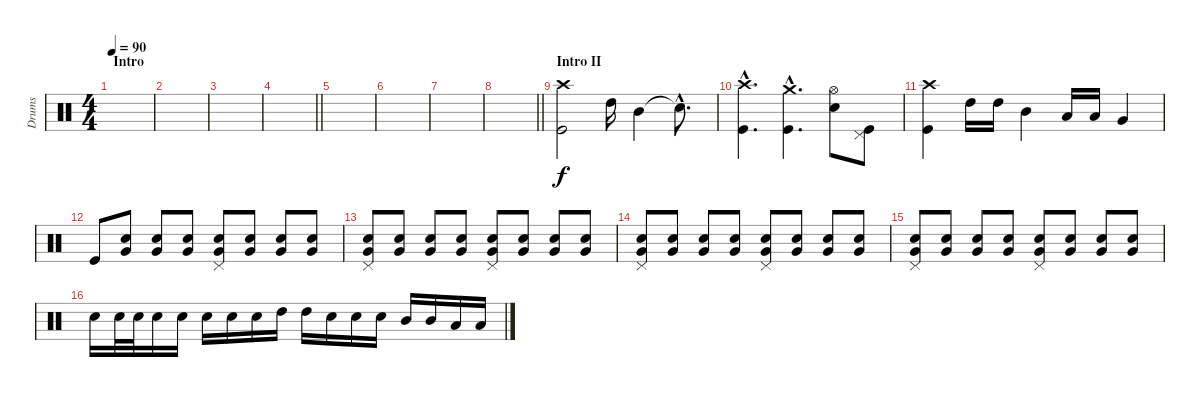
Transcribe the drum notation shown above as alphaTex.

\track ("Drums" "Drums") {instrument percussion}
\staff {score}
\articulation defaults
\ts (4 4)
\section ("" "Intro")
\tempo 90
\clef neutral
\ks c
|
|
|
\barLineRight lightlight
|
|
|
|
\barLineRight lightlight
|
\section ("" "Intro II")
("Crash high (hit)" "Kick (hit)").2 "High Tom (hit)".16 "Mid Tom (hit)".4 "Snare (hit)"{hac t}.8{d} |
("Crash high (hit)"{hac} "Kick (hit)"{hac}).4{d} ("Crash medium (hit)"{hac} "Kick (hit)"{hac}).4{d} ("Hi-Hat (open)" "Electric Snare (hit)").8 ("Pedal Hi-Hat (hit)" "Kick (hit)").8 |
("Crash high (hit)" "Kick (hit)").4 "High Tom (hit)".16 "High Tom (hit)".16 "Mid Tom (hit)".4 "Low Tom (hit)".16 "Low Tom (hit)".16 "Very Low Tom (hit)".4 |
"Kick (hit)".8 ("Very Low Tom (hit)" "Electric Snare (hit)").8 ("Very Low Tom (hit)" "Electric Snare (hit)").8 ("Very Low Tom (hit)" "Electric Snare (hit)").8 ("Very Low Tom (hit)" "Electric Snare (hit)" "Pedal Hi-Hat (hit)").8 ("Very Low Tom (hit)" "Electric Snare (hit)").8 ("Very Low Tom (hit)" "Electric Snare (hit)").8 ("Very Low Tom (hit)" "Electric Snare (hit)").8 |
("Very Low Tom (hit)" "Electric Snare (hit)" "Pedal Hi-Hat (hit)").8 ("Very Low Tom (hit)" "Electric Snare (hit)").8 ("Very Low Tom (hit)" "Electric Snare (hit)").8 ("Very Low Tom (hit)" "Electric Snare (hit)").8 ("Very Low Tom (hit)" "Electric Snare (hit)" "Pedal Hi-Hat (hit)").8 ("Very Low Tom (hit)" "Electric Snare (hit)").8 ("Very Low Tom (hit)" "Electric Snare (hit)").8 ("Very Low Tom (hit)" "Electric Snare (hit)").8 |
("Very Low Tom (hit)" "Electric Snare (hit)" "Pedal Hi-Hat (hit)").8 ("Very Low Tom (hit)" "Electric Snare (hit)").8 ("Very Low Tom (hit)" "Electric Snare (hit)").8 ("Very Low Tom (hit)" "Electric Snare (hit)").8 ("Very Low Tom (hit)" "Electric Snare (hit)" "Pedal Hi-Hat (hit)").8 ("Very Low Tom (hit)" "Electric Snare (hit)").8 ("Very Low Tom (hit)" "Electric Snare (hit)").8 ("Very Low Tom (hit)" "Electric Snare (hit)").8 |
("Very Low Tom (hit)" "Electric Snare (hit)" "Pedal Hi-Hat (hit)").8 ("Very Low Tom (hit)" "Electric Snare (hit)").8 ("Very Low Tom (hit)" "Electric Snare (hit)").8 ("Very Low Tom (hit)" "Electric Snare (hit)").8 ("Very Low Tom (hit)" "Electric Snare (hit)" "Pedal Hi-Hat (hit)").8 ("Very Low Tom (hit)" "Electric Snare (hit)").8 ("Very Low Tom (hit)" "Electric Snare (hit)").8 ("Very Low Tom (hit)" "Electric Snare (hit)").8 |
"Electric Snare (hit)".16 "Electric Snare (hit)".32 "Electric Snare (hit)".32 "Electric Snare (hit)".16 "Electric Snare (hit)".16 "Electric Snare (hit)".16 "Electric Snare (hit)".16 "Electric Snare (hit)".16 "High Tom (hit)".16 "High Tom (hit)".16 "Electric Snare (hit)".16 "Electric Snare (hit)".16 "Electric Snare (hit)".16 "Mid Tom (hit)".16 "Mid Tom (hit)".16 "Low Tom (hit)".16 "Low Tom (hit)".16
